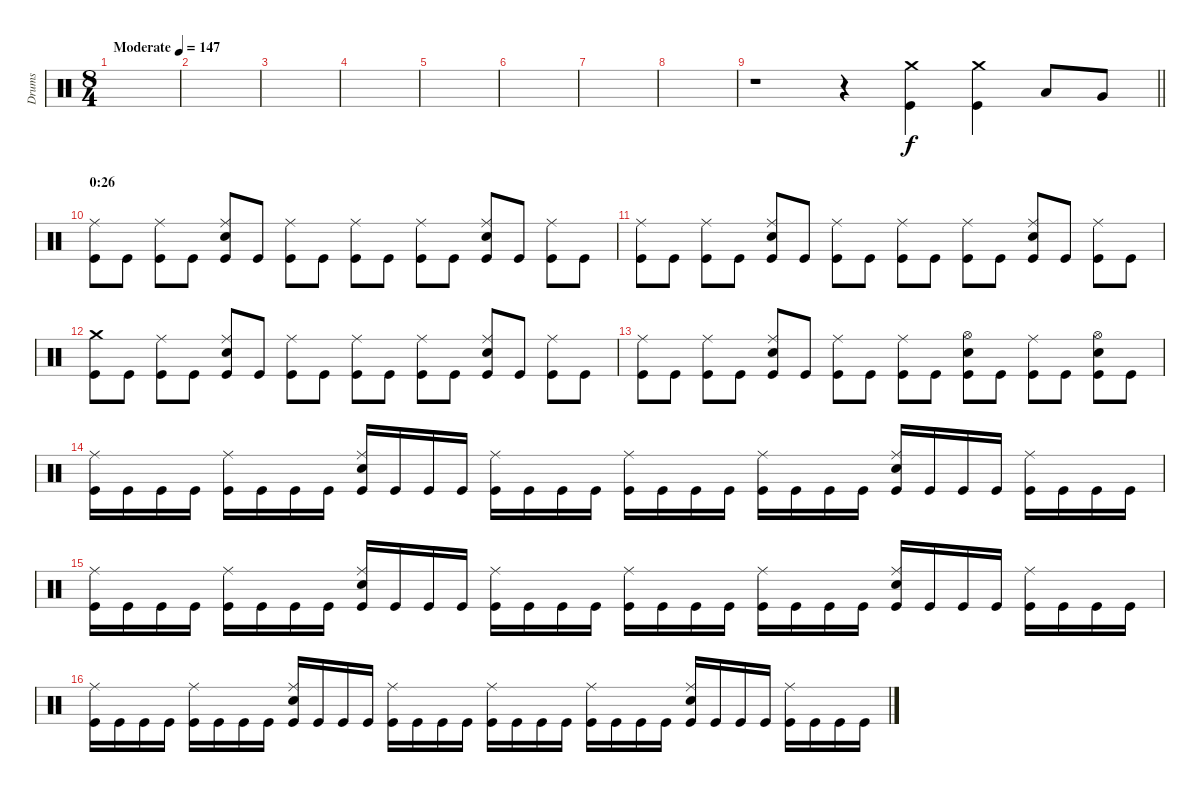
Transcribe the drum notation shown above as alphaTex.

\track ("Drums" "Drums") {instrument percussion}
\staff {score}
\articulation defaults
\ts (8 4)
\tempo (147 "Moderate")
\clef neutral
\ks c
|
|
|
|
|
|
|
|
\barLineRight lightlight
r.1 r.4 ("Crash medium (hit)" "Kick (hit)").4 ("Crash medium (hit)" "Kick (hit)").4 "Low Tom (hit)".8 "Very Low Tom (hit)".8 |
\section ("" "0:26")
("Ride (middle)" "Kick (hit)").8 "Kick (hit)".8 ("Ride (middle)" "Kick (hit)").8 "Kick (hit)".8 ("Ride (middle)" "Electric Snare (hit)" "Kick (hit)").8 "Kick (hit)".8 ("Ride (middle)" "Kick (hit)").8 "Kick (hit)".8 ("Ride (middle)" "Kick (hit)").8 "Kick (hit)".8 ("Ride (middle)" "Kick (hit)").8 "Kick (hit)".8 ("Ride (middle)" "Electric Snare (hit)" "Kick (hit)").8 "Kick (hit)".8 ("Ride (middle)" "Kick (hit)").8 "Kick (hit)".8 |
("Ride (middle)" "Kick (hit)").8 "Kick (hit)".8 ("Ride (middle)" "Kick (hit)").8 "Kick (hit)".8 ("Ride (middle)" "Electric Snare (hit)" "Kick (hit)").8 "Kick (hit)".8 ("Ride (middle)" "Kick (hit)").8 "Kick (hit)".8 ("Ride (middle)" "Kick (hit)").8 "Kick (hit)".8 ("Ride (middle)" "Kick (hit)").8 "Kick (hit)".8 ("Ride (middle)" "Electric Snare (hit)" "Kick (hit)").8 "Kick (hit)".8 ("Ride (middle)" "Kick (hit)").8 "Kick (hit)".8 |
("Crash medium (hit)" "Kick (hit)").8 "Kick (hit)".8 ("Ride (middle)" "Kick (hit)").8 "Kick (hit)".8 ("Ride (middle)" "Electric Snare (hit)" "Kick (hit)").8 "Kick (hit)".8 ("Ride (middle)" "Kick (hit)").8 "Kick (hit)".8 ("Ride (middle)" "Kick (hit)").8 "Kick (hit)".8 ("Ride (middle)" "Kick (hit)").8 "Kick (hit)".8 ("Ride (middle)" "Electric Snare (hit)" "Kick (hit)").8 "Kick (hit)".8 ("Ride (middle)" "Kick (hit)").8 "Kick (hit)".8 |
("Ride (middle)" "Kick (hit)").8 "Kick (hit)".8 ("Ride (middle)" "Kick (hit)").8 "Kick (hit)".8 ("Ride (middle)" "Electric Snare (hit)" "Kick (hit)").8 "Kick (hit)".8 ("Ride (middle)" "Kick (hit)").8 "Kick (hit)".8 ("Ride (middle)" "Kick (hit)").8 "Kick (hit)".8 ("Hi-Hat (open)" "Electric Snare (hit)" "Kick (hit)").8 "Kick (hit)".8 ("Ride (middle)" "Kick (hit)").8 "Kick (hit)".8 ("Hi-Hat (open)" "Electric Snare (hit)" "Kick (hit)").8 "Kick (hit)".8 |
("Ride (middle)" "Kick (hit)").16 "Kick (hit)".16 "Kick (hit)".16 "Kick (hit)".16 ("Ride (middle)" "Kick (hit)").16 "Kick (hit)".16 "Kick (hit)".16 "Kick (hit)".16 ("Ride (middle)" "Electric Snare (hit)" "Kick (hit)").16 "Kick (hit)".16 "Kick (hit)".16 "Kick (hit)".16 ("Ride (middle)" "Kick (hit)").16 "Kick (hit)".16 "Kick (hit)".16 "Kick (hit)".16 ("Ride (middle)" "Kick (hit)").16 "Kick (hit)".16 "Kick (hit)".16 "Kick (hit)".16 ("Ride (middle)" "Kick (hit)").16 "Kick (hit)".16 "Kick (hit)".16 "Kick (hit)".16 ("Ride (middle)" "Electric Snare (hit)" "Kick (hit)").16 "Kick (hit)".16 "Kick (hit)".16 "Kick (hit)".16 ("Ride (middle)" "Kick (hit)").16 "Kick (hit)".16 "Kick (hit)".16 "Kick (hit)".16 |
("Ride (middle)" "Kick (hit)").16 "Kick (hit)".16 "Kick (hit)".16 "Kick (hit)".16 ("Ride (middle)" "Kick (hit)").16 "Kick (hit)".16 "Kick (hit)".16 "Kick (hit)".16 ("Ride (middle)" "Electric Snare (hit)" "Kick (hit)").16 "Kick (hit)".16 "Kick (hit)".16 "Kick (hit)".16 ("Ride (middle)" "Kick (hit)").16 "Kick (hit)".16 "Kick (hit)".16 "Kick (hit)".16 ("Ride (middle)" "Kick (hit)").16 "Kick (hit)".16 "Kick (hit)".16 "Kick (hit)".16 ("Ride (middle)" "Kick (hit)").16 "Kick (hit)".16 "Kick (hit)".16 "Kick (hit)".16 ("Ride (middle)" "Electric Snare (hit)" "Kick (hit)").16 "Kick (hit)".16 "Kick (hit)".16 "Kick (hit)".16 ("Ride (middle)" "Kick (hit)").16 "Kick (hit)".16 "Kick (hit)".16 "Kick (hit)".16 |
("Ride (middle)" "Kick (hit)").16 "Kick (hit)".16 "Kick (hit)".16 "Kick (hit)".16 ("Ride (middle)" "Kick (hit)").16 "Kick (hit)".16 "Kick (hit)".16 "Kick (hit)".16 ("Ride (middle)" "Electric Snare (hit)" "Kick (hit)").16 "Kick (hit)".16 "Kick (hit)".16 "Kick (hit)".16 ("Ride (middle)" "Kick (hit)").16 "Kick (hit)".16 "Kick (hit)".16 "Kick (hit)".16 ("Ride (middle)" "Kick (hit)").16 "Kick (hit)".16 "Kick (hit)".16 "Kick (hit)".16 ("Ride (middle)" "Kick (hit)").16 "Kick (hit)".16 "Kick (hit)".16 "Kick (hit)".16 ("Ride (middle)" "Electric Snare (hit)" "Kick (hit)").16 "Kick (hit)".16 "Kick (hit)".16 "Kick (hit)".16 ("Ride (middle)" "Kick (hit)").16 "Kick (hit)".16 "Kick (hit)".16 "Kick (hit)".16
